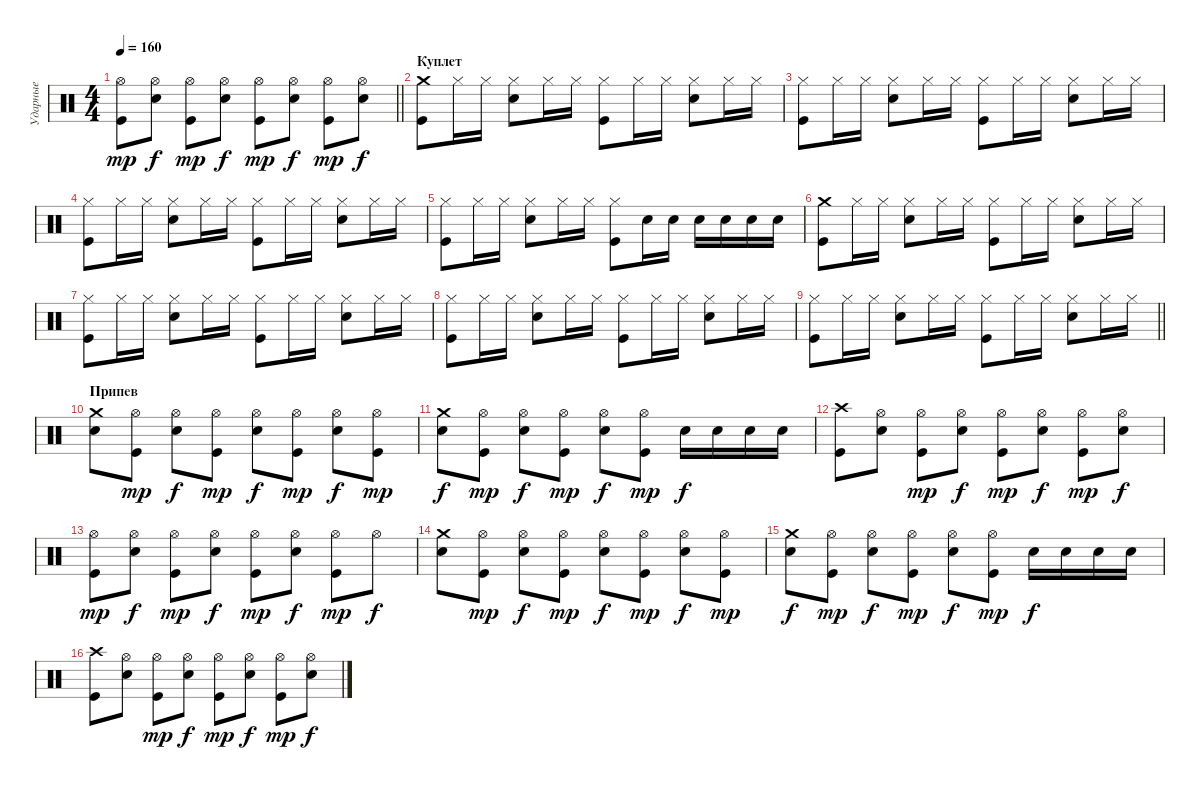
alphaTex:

\track ("Ударные" "Ударные") {instrument percussion}
\staff {score}
\articulation defaults
\ts (4 4)
\tempo 160
\clef neutral
\barLineRight lightlight
\ks c
("Hi-Hat (open)" "Kick (hit)").8{dy mp} ("Hi-Hat (open)" "Electric Snare (hit)").8{dy f} ("Hi-Hat (open)" "Kick (hit)").8{dy mp} ("Hi-Hat (open)" "Electric Snare (hit)").8{dy f} ("Hi-Hat (open)" "Kick (hit)").8{dy mp} ("Hi-Hat (open)" "Electric Snare (hit)").8{dy f} ("Hi-Hat (open)" "Kick (hit)").8{dy mp} ("Hi-Hat (open)" "Electric Snare (hit)").8{dy f} |
\section ("" "Куплет")
("Crash medium (hit)" "Kick (hit)").8 "Hi-Hat (closed)".16 "Hi-Hat (closed)".16 ("Hi-Hat (closed)" "Electric Snare (hit)").8 "Hi-Hat (closed)".16 "Hi-Hat (closed)".16 ("Hi-Hat (closed)" "Kick (hit)").8 "Hi-Hat (closed)".16 "Hi-Hat (closed)".16 ("Hi-Hat (closed)" "Electric Snare (hit)").8 "Hi-Hat (closed)".16 "Hi-Hat (closed)".16 |
("Hi-Hat (closed)" "Kick (hit)").8 "Hi-Hat (closed)".16 "Hi-Hat (closed)".16 ("Hi-Hat (closed)" "Electric Snare (hit)").8 "Hi-Hat (closed)".16 "Hi-Hat (closed)".16 ("Hi-Hat (closed)" "Kick (hit)").8 "Hi-Hat (closed)".16 "Hi-Hat (closed)".16 ("Hi-Hat (closed)" "Electric Snare (hit)").8 "Hi-Hat (closed)".16 "Hi-Hat (closed)".16 |
("Hi-Hat (closed)" "Kick (hit)").8 "Hi-Hat (closed)".16 "Hi-Hat (closed)".16 ("Hi-Hat (closed)" "Electric Snare (hit)").8 "Hi-Hat (closed)".16 "Hi-Hat (closed)".16 ("Hi-Hat (closed)" "Kick (hit)").8 "Hi-Hat (closed)".16 "Hi-Hat (closed)".16 ("Hi-Hat (closed)" "Electric Snare (hit)").8 "Hi-Hat (closed)".16 "Hi-Hat (closed)".16 |
("Hi-Hat (closed)" "Kick (hit)").8 "Hi-Hat (closed)".16 "Hi-Hat (closed)".16 ("Hi-Hat (closed)" "Electric Snare (hit)").8 "Hi-Hat (closed)".16 "Hi-Hat (closed)".16 ("Hi-Hat (closed)" "Kick (hit)").8 "Electric Snare (hit)".16 "Electric Snare (hit)".16 "Electric Snare (hit)".16 "Electric Snare (hit)".16 "Electric Snare (hit)".16 "Electric Snare (hit)".16 |
("Crash medium (hit)" "Kick (hit)").8 "Hi-Hat (closed)".16 "Hi-Hat (closed)".16 ("Hi-Hat (closed)" "Electric Snare (hit)").8 "Hi-Hat (closed)".16 "Hi-Hat (closed)".16 ("Hi-Hat (closed)" "Kick (hit)").8 "Hi-Hat (closed)".16 "Hi-Hat (closed)".16 ("Hi-Hat (closed)" "Electric Snare (hit)").8 "Hi-Hat (closed)".16 "Hi-Hat (closed)".16 |
("Hi-Hat (closed)" "Kick (hit)").8 "Hi-Hat (closed)".16 "Hi-Hat (closed)".16 ("Hi-Hat (closed)" "Electric Snare (hit)").8 "Hi-Hat (closed)".16 "Hi-Hat (closed)".16 ("Hi-Hat (closed)" "Kick (hit)").8 "Hi-Hat (closed)".16 "Hi-Hat (closed)".16 ("Hi-Hat (closed)" "Electric Snare (hit)").8 "Hi-Hat (closed)".16 "Hi-Hat (closed)".16 |
("Hi-Hat (closed)" "Kick (hit)").8 "Hi-Hat (closed)".16 "Hi-Hat (closed)".16 ("Hi-Hat (closed)" "Electric Snare (hit)").8 "Hi-Hat (closed)".16 "Hi-Hat (closed)".16 ("Hi-Hat (closed)" "Kick (hit)").8 "Hi-Hat (closed)".16 "Hi-Hat (closed)".16 ("Hi-Hat (closed)" "Electric Snare (hit)").8 "Hi-Hat (closed)".16 "Hi-Hat (closed)".16 |
\barLineRight lightlight
("Hi-Hat (closed)" "Kick (hit)").8 "Hi-Hat (closed)".16 "Hi-Hat (closed)".16 ("Hi-Hat (closed)" "Electric Snare (hit)").8 "Hi-Hat (closed)".16 "Hi-Hat (closed)".16 ("Hi-Hat (closed)" "Kick (hit)").8 "Hi-Hat (closed)".16 "Hi-Hat (closed)".16 ("Hi-Hat (closed)" "Electric Snare (hit)").8 "Hi-Hat (closed)".16 "Hi-Hat (closed)".16 |
\section ("" "Припев")
("Crash medium (hit)" "Electric Snare (hit)").8 ("Hi-Hat (open)" "Kick (hit)").8{dy mp} ("Hi-Hat (open)" "Electric Snare (hit)").8{dy f} ("Hi-Hat (open)" "Kick (hit)").8{dy mp} ("Hi-Hat (open)" "Electric Snare (hit)").8{dy f} ("Hi-Hat (open)" "Kick (hit)").8{dy mp} ("Hi-Hat (open)" "Electric Snare (hit)").8{dy f} ("Hi-Hat (open)" "Kick (hit)").8{dy mp} |
("Crash medium (hit)" "Electric Snare (hit)").8{dy f} ("Hi-Hat (open)" "Kick (hit)").8{dy mp} ("Hi-Hat (open)" "Electric Snare (hit)").8{dy f} ("Hi-Hat (open)" "Kick (hit)").8{dy mp} ("Hi-Hat (open)" "Electric Snare (hit)").8{dy f} ("Hi-Hat (open)" "Kick (hit)").8{dy mp} "Electric Snare (hit)".16{dy f} "Electric Snare (hit)".16 "Electric Snare (hit)".16 "Electric Snare (hit)".16 |
("Crash high (hit)" "Kick (hit)").8 ("Hi-Hat (open)" "Electric Snare (hit)").8 ("Hi-Hat (open)" "Kick (hit)").8{dy mp} ("Hi-Hat (open)" "Electric Snare (hit)").8{dy f} ("Hi-Hat (open)" "Kick (hit)").8{dy mp} ("Hi-Hat (open)" "Electric Snare (hit)").8{dy f} ("Hi-Hat (open)" "Kick (hit)").8{dy mp} ("Hi-Hat (open)" "Electric Snare (hit)").8{dy f} |
("Hi-Hat (open)" "Kick (hit)").8{dy mp} ("Hi-Hat (open)" "Electric Snare (hit)").8{dy f} ("Hi-Hat (open)" "Kick (hit)").8{dy mp} ("Hi-Hat (open)" "Electric Snare (hit)").8{dy f} ("Hi-Hat (open)" "Kick (hit)").8{dy mp} ("Hi-Hat (open)" "Electric Snare (hit)").8{dy f} ("Hi-Hat (open)" "Kick (hit)").8{dy mp} "Hi-Hat (open)".8{dy f} |
("Crash medium (hit)" "Electric Snare (hit)").8 ("Hi-Hat (open)" "Kick (hit)").8{dy mp} ("Hi-Hat (open)" "Electric Snare (hit)").8{dy f} ("Hi-Hat (open)" "Kick (hit)").8{dy mp} ("Hi-Hat (open)" "Electric Snare (hit)").8{dy f} ("Hi-Hat (open)" "Kick (hit)").8{dy mp} ("Hi-Hat (open)" "Electric Snare (hit)").8{dy f} ("Hi-Hat (open)" "Kick (hit)").8{dy mp} |
("Crash medium (hit)" "Electric Snare (hit)").8{dy f} ("Hi-Hat (open)" "Kick (hit)").8{dy mp} ("Hi-Hat (open)" "Electric Snare (hit)").8{dy f} ("Hi-Hat (open)" "Kick (hit)").8{dy mp} ("Hi-Hat (open)" "Electric Snare (hit)").8{dy f} ("Hi-Hat (open)" "Kick (hit)").8{dy mp} "Electric Snare (hit)".16{dy f} "Electric Snare (hit)".16 "Electric Snare (hit)".16 "Electric Snare (hit)".16 |
("Crash high (hit)" "Kick (hit)").8 ("Hi-Hat (open)" "Electric Snare (hit)").8 ("Hi-Hat (open)" "Kick (hit)").8{dy mp} ("Hi-Hat (open)" "Electric Snare (hit)").8{dy f} ("Hi-Hat (open)" "Kick (hit)").8{dy mp} ("Hi-Hat (open)" "Electric Snare (hit)").8{dy f} ("Hi-Hat (open)" "Kick (hit)").8{dy mp} ("Hi-Hat (open)" "Electric Snare (hit)").8{dy f}
